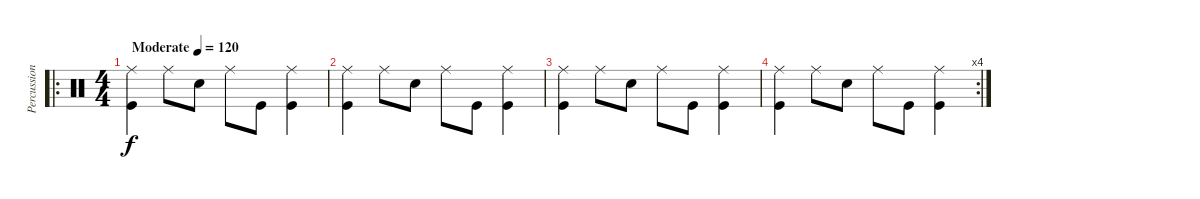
\track ("Percussion" "Percussion") {instrument percussion}
\staff {score}
\articulation defaults
\ro
\ts (4 4)
\tempo (120 "Moderate")
\clef neutral
\ks c
("Ride (middle)" "Kick (hit)").4{dy f} "Ride (middle)".8 "Snare (hit) 2".8 "Ride (middle)".8 "Kick (hit)".8 ("Ride (middle)" "Kick (hit)").4 |
("Ride (middle)" "Kick (hit)").4 "Ride (middle)".8 "Snare (hit) 2".8 "Ride (middle)".8 "Kick (hit)".8 ("Ride (middle)" "Kick (hit)").4 |
("Ride (middle)" "Kick (hit)").4 "Ride (middle)".8 "Snare (hit) 2".8 "Ride (middle)".8 "Kick (hit)".8 ("Ride (middle)" "Kick (hit)").4 |
\rc 4
("Ride (middle)" "Kick (hit)").4 "Ride (middle)".8 "Snare (hit) 2".8 "Ride (middle)".8 "Kick (hit)".8 ("Ride (middle)" "Kick (hit)").4
